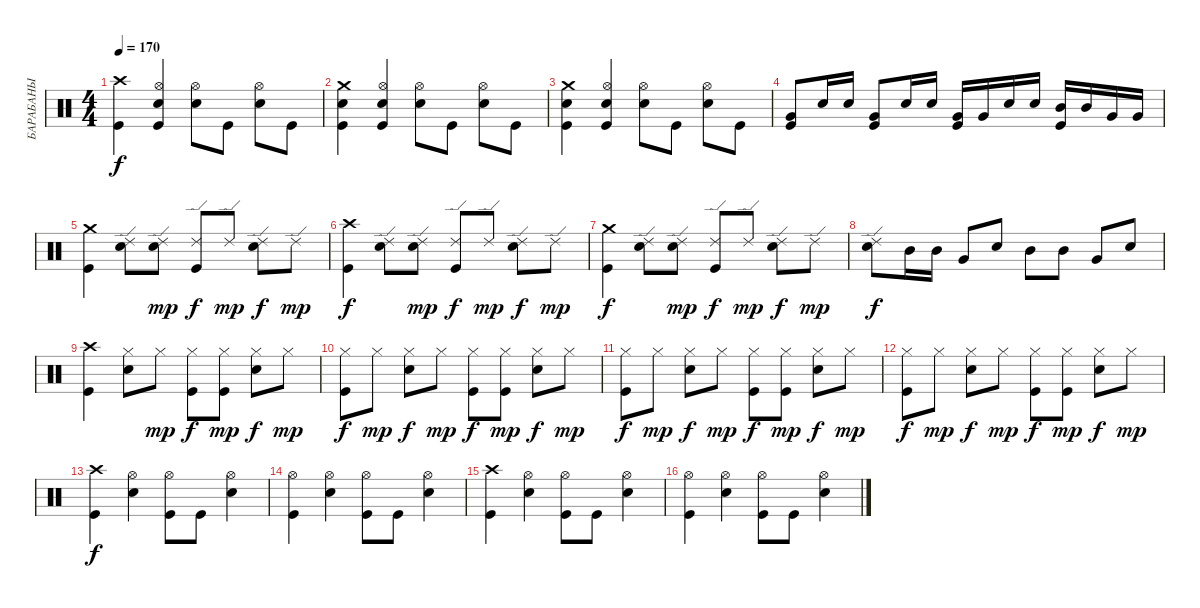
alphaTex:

\track ("БАРАБАНЫ" "БАРАБАНЫ") {instrument percussion}
\staff {score}
\articulation defaults
\ts (4 4)
\tempo 170
\clef neutral
\ks c
("Crash high (hit)" "Kick (hit)").4{dy f} ("Hi-Hat (open)" "Electric Snare (hit)" "Kick (hit)").4 ("Hi-Hat (open)" "Electric Snare (hit)").8 "Kick (hit)".8 ("Hi-Hat (open)" "Electric Snare (hit)").8 "Kick (hit)".8 |
("Crash medium (hit)" "Electric Snare (hit)" "Kick (hit)").4 ("Hi-Hat (open)" "Electric Snare (hit)" "Kick (hit)").4 ("Hi-Hat (open)" "Electric Snare (hit)").8 "Kick (hit)".8 ("Hi-Hat (open)" "Electric Snare (hit)").8 "Kick (hit)".8 |
("Crash medium (hit)" "Electric Snare (hit)" "Kick (hit)").4 ("Hi-Hat (open)" "Electric Snare (hit)" "Kick (hit)").4 ("Hi-Hat (open)" "Electric Snare (hit)").8 "Kick (hit)".8 ("Hi-Hat (open)" "Electric Snare (hit)").8 "Kick (hit)".8 |
("Very Low Tom (hit)" "Kick (hit)").8 "Electric Snare (hit)".16 "Electric Snare (hit)".16 ("Very Low Tom (hit)" "Kick (hit)").8 "Electric Snare (hit)".16 "Electric Snare (hit)".16 ("Very Low Tom (hit)" "Kick (hit)").16 "Very Low Tom (hit)".16 "Electric Snare (hit)".16 "Electric Snare (hit)".16 ("Mid Tom (hit)" "Kick (hit)").16 "Mid Tom (hit)".16 "Very Low Tom (hit)".16 "Very Low Tom (hit)".16 |
("Crash medium (hit)" "Kick (hit)").4 ("Ride (edge) 2" "Electric Snare (hit)").8 ("Ride (edge) 2" "Electric Snare (hit)").8{dy mp} ("Ride (edge) 2" "Kick (hit)").8{dy f} "Ride (edge) 2".8{dy mp} ("Ride (edge) 2" "Electric Snare (hit)").8{dy f} "Ride (edge) 2".8{dy mp} |
("Crash high (hit)" "Kick (hit)").4{dy f} ("Ride (edge) 2" "Electric Snare (hit)").8 ("Ride (edge) 2" "Electric Snare (hit)").8{dy mp} ("Ride (edge) 2" "Kick (hit)").8{dy f} "Ride (edge) 2".8{dy mp} ("Ride (edge) 2" "Electric Snare (hit)").8{dy f} "Ride (edge) 2".8{dy mp} |
("Crash medium (hit)" "Kick (hit)").4{dy f} ("Ride (edge) 2" "Electric Snare (hit)").8 ("Ride (edge) 2" "Electric Snare (hit)").8{dy mp} ("Ride (edge) 2" "Kick (hit)").8{dy f} "Ride (edge) 2".8{dy mp} ("Ride (edge) 2" "Electric Snare (hit)").8{dy f} "Ride (edge) 2".8{dy mp} |
("Ride (edge) 2" "Electric Snare (hit)").8{dy f} "Mid Tom (hit)".16 "Mid Tom (hit)".16 "Very Low Tom (hit)".8 "Electric Snare (hit)".8 "Mid Tom (hit)".8 "Mid Tom (hit)".8 "Very Low Tom (hit)".8 "Electric Snare (hit)".8 |
("Crash high (hit)" "Kick (hit)").4 ("Hi-Hat (closed)" "Electric Snare (hit)").8 "Hi-Hat (closed)".8{dy mp} ("Hi-Hat (closed)" "Kick (hit)").8{dy f} ("Hi-Hat (closed)" "Kick (hit)").8{dy mp} ("Hi-Hat (closed)" "Electric Snare (hit)").8{dy f} "Hi-Hat (closed)".8{dy mp} |
("Hi-Hat (closed)" "Kick (hit)").8{dy f} "Hi-Hat (closed)".8{dy mp} ("Hi-Hat (closed)" "Electric Snare (hit)").8{dy f} "Hi-Hat (closed)".8{dy mp} ("Hi-Hat (closed)" "Kick (hit)").8{dy f} ("Hi-Hat (closed)" "Kick (hit)").8{dy mp} ("Hi-Hat (closed)" "Electric Snare (hit)").8{dy f} "Hi-Hat (closed)".8{dy mp} |
("Hi-Hat (closed)" "Kick (hit)").8{dy f} "Hi-Hat (closed)".8{dy mp} ("Hi-Hat (closed)" "Electric Snare (hit)").8{dy f} "Hi-Hat (closed)".8{dy mp} ("Hi-Hat (closed)" "Kick (hit)").8{dy f} ("Hi-Hat (closed)" "Kick (hit)").8{dy mp} ("Hi-Hat (closed)" "Electric Snare (hit)").8{dy f} "Hi-Hat (closed)".8{dy mp} |
("Hi-Hat (closed)" "Kick (hit)").8{dy f} "Hi-Hat (closed)".8{dy mp} ("Hi-Hat (closed)" "Electric Snare (hit)").8{dy f} "Hi-Hat (closed)".8{dy mp} ("Hi-Hat (closed)" "Kick (hit)").8{dy f} ("Hi-Hat (closed)" "Kick (hit)").8{dy mp} ("Hi-Hat (closed)" "Electric Snare (hit)").8{dy f} "Hi-Hat (closed)".8{dy mp} |
("Crash high (hit)" "Kick (hit)").4{dy f} ("Hi-Hat (open)" "Electric Snare (hit)").4 ("Hi-Hat (open)" "Kick (hit)").8 "Kick (hit)".8 ("Hi-Hat (open)" "Electric Snare (hit)").4 |
("Hi-Hat (open)" "Kick (hit)").4 ("Hi-Hat (open)" "Electric Snare (hit)").4 ("Hi-Hat (open)" "Kick (hit)").8 "Kick (hit)".8 ("Hi-Hat (open)" "Electric Snare (hit)").4 |
("Crash high (hit)" "Kick (hit)").4 ("Hi-Hat (open)" "Electric Snare (hit)").4 ("Hi-Hat (open)" "Kick (hit)").8 "Kick (hit)".8 ("Hi-Hat (open)" "Electric Snare (hit)").4 |
("Hi-Hat (open)" "Kick (hit)").4 ("Hi-Hat (open)" "Electric Snare (hit)").4 ("Hi-Hat (open)" "Kick (hit)").8 "Kick (hit)".8 ("Hi-Hat (open)" "Electric Snare (hit)").4
